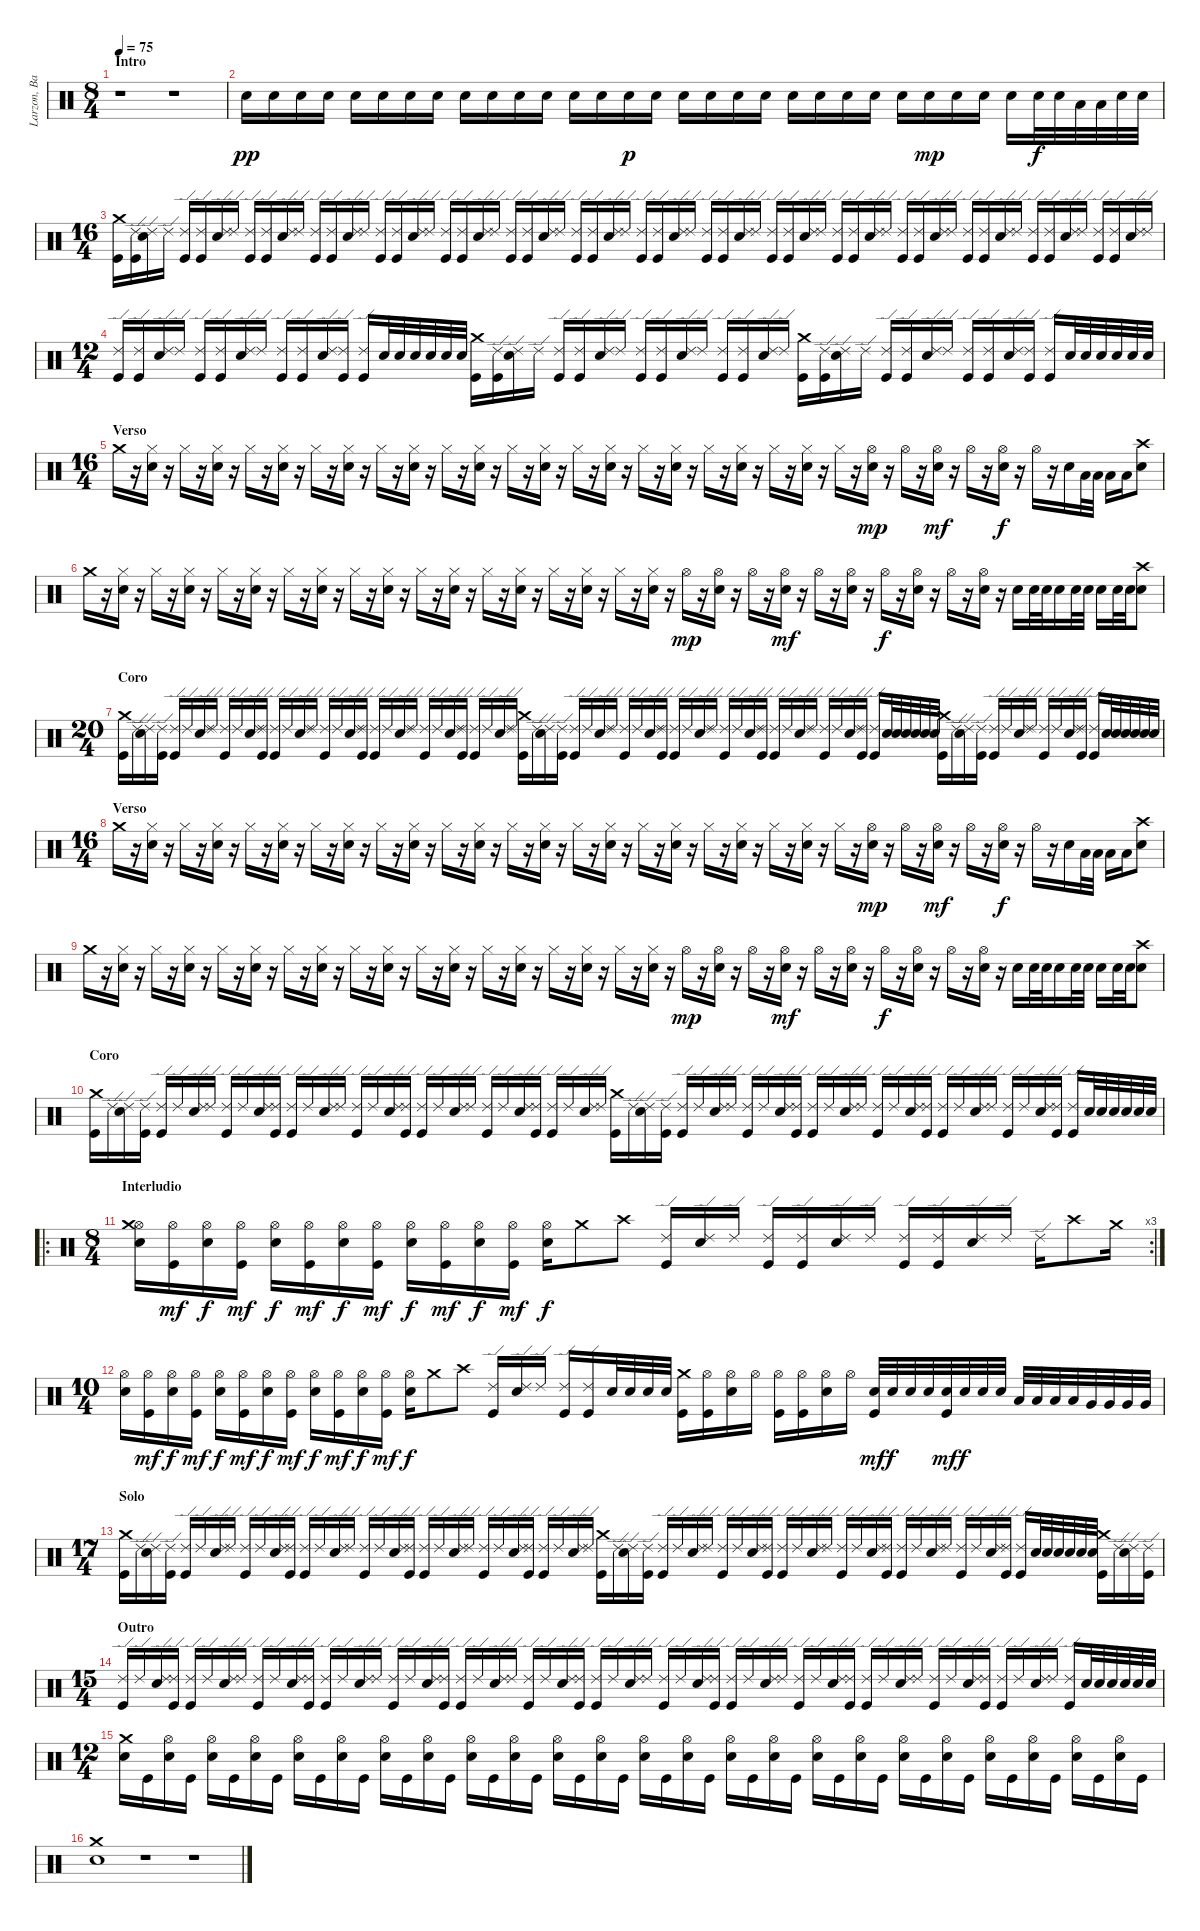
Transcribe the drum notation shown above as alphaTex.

\track ("Larzon, Batería" "Larzon, Ba") {instrument percussion}
\staff {score}
\articulation defaults
\ts (8 4)
\section ("" "Intro")
\tempo 75
\clef neutral
\ks c
r.1{dy pp} r.1 |
"Snare (hit) 2".16 "Snare (hit) 2".16 "Snare (hit) 2".16 "Snare (hit) 2".16 "Snare (hit) 2".16 "Snare (hit) 2".16 "Snare (hit) 2".16 "Snare (hit) 2".16 "Snare (hit) 2".16 "Snare (hit) 2".16 "Snare (hit) 2".16 "Snare (hit) 2".16 "Snare (hit) 2".16 "Snare (hit) 2".16 "Snare (hit) 2".16{dy p} "Snare (hit) 2".16 "Snare (hit) 2".16 "Snare (hit) 2".16 "Snare (hit) 2".16 "Snare (hit) 2".16 "Snare (hit) 2".16 "Snare (hit) 2".16 "Snare (hit) 2".16 "Snare (hit) 2".16 "Snare (hit) 2".16 "Snare (hit) 2".16{dy mp} "Snare (hit) 2".16 "Snare (hit) 2".16 "Snare (hit) 2".16 "Snare (hit) 2".32{dy f} "Snare (hit) 2".32 "Low Tom (hit)".32 "Low Tom (hit)".32 "Snare (hit) 2".32 "Snare (hit) 2".32 |
\ts (16 4)
("Crash medium (hit)" "Kick (hit)").16 ("Ride (edge) 2" "Kick (hit)").16 ("Ride (edge) 2" "Snare (hit) 2").16 "Ride (edge) 2".16 ("Ride (edge) 2" "Kick (hit)").16 ("Ride (edge) 2" "Kick (hit)").16 ("Ride (edge) 2" "Snare (hit) 2").16 "Ride (edge) 2".16 ("Ride (edge) 2" "Kick (hit)").16 ("Ride (edge) 2" "Kick (hit)").16 ("Ride (edge) 2" "Snare (hit) 2").16 "Ride (edge) 2".16 ("Ride (edge) 2" "Kick (hit)").16 ("Ride (edge) 2" "Kick (hit)").16 ("Ride (edge) 2" "Snare (hit) 2").16 "Ride (edge) 2".16 ("Ride (edge) 2" "Kick (hit)").16 ("Ride (edge) 2" "Kick (hit)").16 ("Ride (edge) 2" "Snare (hit) 2").16 "Ride (edge) 2".16 ("Ride (edge) 2" "Kick (hit)").16 ("Ride (edge) 2" "Kick (hit)").16 ("Ride (edge) 2" "Snare (hit) 2").16 "Ride (edge) 2".16 ("Ride (edge) 2" "Kick (hit)").16 ("Ride (edge) 2" "Kick (hit)").16 ("Ride (edge) 2" "Snare (hit) 2").16 "Ride (edge) 2".16 ("Ride (edge) 2" "Kick (hit)").16 ("Ride (edge) 2" "Kick (hit)").16 ("Ride (edge) 2" "Snare (hit) 2").16 "Ride (edge) 2".16 ("Ride (edge) 2" "Kick (hit)").16 ("Ride (edge) 2" "Kick (hit)").16 ("Ride (edge) 2" "Snare (hit) 2").16 "Ride (edge) 2".16 ("Ride (edge) 2" "Kick (hit)").16 ("Ride (edge) 2" "Kick (hit)").16 ("Ride (edge) 2" "Snare (hit) 2").16 "Ride (edge) 2".16 ("Ride (edge) 2" "Kick (hit)").16 ("Ride (edge) 2" "Kick (hit)").16 ("Ride (edge) 2" "Snare (hit) 2").16 "Ride (edge) 2".16 ("Ride (edge) 2" "Kick (hit)").16 ("Ride (edge) 2" "Kick (hit)").16 ("Ride (edge) 2" "Snare (hit) 2").16 "Ride (edge) 2".16 ("Ride (edge) 2" "Kick (hit)").16 ("Ride (edge) 2" "Kick (hit)").16 ("Ride (edge) 2" "Snare (hit) 2").16 "Ride (edge) 2".16 ("Ride (edge) 2" "Kick (hit)").16 ("Ride (edge) 2" "Kick (hit)").16 ("Ride (edge) 2" "Snare (hit) 2").16 "Ride (edge) 2".16 ("Ride (edge) 2" "Kick (hit)").16 ("Ride (edge) 2" "Kick (hit)").16 ("Ride (edge) 2" "Snare (hit) 2").16 "Ride (edge) 2".16 ("Ride (edge) 2" "Kick (hit)").16 ("Ride (edge) 2" "Kick (hit)").16 ("Ride (edge) 2" "Snare (hit) 2").16 "Ride (edge) 2".16 |
\ts (12 4)
("Ride (edge) 2" "Kick (hit)").16 ("Ride (edge) 2" "Kick (hit)").16 ("Ride (edge) 2" "Snare (hit) 2").16 "Ride (edge) 2".16 ("Ride (edge) 2" "Kick (hit)").16 ("Ride (edge) 2" "Kick (hit)").16 ("Ride (edge) 2" "Snare (hit) 2").16 "Ride (edge) 2".16 ("Ride (edge) 2" "Kick (hit)").16 ("Ride (edge) 2" "Kick (hit)").16 ("Ride (edge) 2" "Snare (hit) 2").16 ("Ride (edge) 2" "Kick (hit)").16 ("Ride (edge) 2" "Kick (hit)").16 "Snare (hit) 2".32 "Snare (hit) 2".32 "Snare (hit) 2".32 "Snare (hit) 2".32 "Snare (hit) 2".32 "Snare (hit) 2".32 ("Crash medium (hit)" "Kick (hit)").16 ("Ride (edge) 2" "Kick (hit)").16 ("Ride (edge) 2" "Snare (hit) 2").16 "Ride (edge) 2".16 ("Ride (edge) 2" "Kick (hit)").16 ("Ride (edge) 2" "Kick (hit)").16 ("Ride (edge) 2" "Snare (hit) 2").16 "Ride (edge) 2".16 ("Ride (edge) 2" "Kick (hit)").16 ("Ride (edge) 2" "Kick (hit)").16 ("Ride (edge) 2" "Snare (hit) 2").16 "Ride (edge) 2".16 ("Ride (edge) 2" "Kick (hit)").16 ("Ride (edge) 2" "Kick (hit)").16 ("Ride (edge) 2" "Snare (hit) 2").16 "Ride (edge) 2".16 ("Crash medium (hit)" "Kick (hit)").16 ("Ride (edge) 2" "Kick (hit)").16 ("Ride (edge) 2" "Snare (hit) 2").16 "Ride (edge) 2".16 ("Ride (edge) 2" "Kick (hit)").16 ("Ride (edge) 2" "Kick (hit)").16 ("Ride (edge) 2" "Snare (hit) 2").16 "Ride (edge) 2".16 ("Ride (edge) 2" "Kick (hit)").16 ("Ride (edge) 2" "Kick (hit)").16 ("Ride (edge) 2" "Snare (hit) 2").16 ("Ride (edge) 2" "Kick (hit)").16 ("Ride (edge) 2" "Kick (hit)").16 "Snare (hit) 2".32 "Snare (hit) 2".32 "Snare (hit) 2".32 "Snare (hit) 2".32 "Snare (hit) 2".32 "Snare (hit) 2".32 |
\ts (16 4)
\section ("" "Verso")
"Crash medium (hit)".16 r.16 ("Hi-Hat (closed)" "Snare (hit) 2").16 r.16 "Hi-Hat (closed)".16 r.16 ("Hi-Hat (closed)" "Snare (hit) 2").16 r.16 "Hi-Hat (closed)".16 r.16 ("Hi-Hat (closed)" "Snare (hit) 2").16 r.16 "Hi-Hat (closed)".16 r.16 ("Hi-Hat (closed)" "Snare (hit) 2").16 r.16 "Hi-Hat (closed)".16 r.16 ("Hi-Hat (closed)" "Snare (hit) 2").16 r.16 "Hi-Hat (closed)".16 r.16 ("Hi-Hat (closed)" "Snare (hit) 2").16 r.16 "Hi-Hat (closed)".16 r.16 ("Hi-Hat (closed)" "Snare (hit) 2").16 r.16 "Hi-Hat (closed)".16 r.16 ("Hi-Hat (closed)" "Snare (hit) 2").16 r.16 "Hi-Hat (closed)".16 r.16 ("Hi-Hat (closed)" "Snare (hit) 2").16 r.16 "Hi-Hat (closed)".16 r.16 ("Hi-Hat (closed)" "Snare (hit) 2").16 r.16 "Hi-Hat (closed)".16 r.16 ("Hi-Hat (closed)" "Snare (hit) 2").16 r.16 "Hi-Hat (closed)".16 r.16 ("Hi-Hat (open)" "Snare (hit) 2").16{dy mp} r.16 "Hi-Hat (open)".16 r.16 ("Hi-Hat (open)" "Snare (hit) 2").16{dy mf} r.16 "Hi-Hat (open)".16 r.16 ("Hi-Hat (open)" "Snare (hit) 2").16{dy f} r.16 "Hi-Hat (open)".16 r.16 "Snare (hit) 2".16 "Low Tom (hit)".32 "Low Tom (hit)".32 "Low Tom (hit)".16 "Low Tom (hit)".16 ("Crash high (hit)" "Snare (hit) 2").8 |
"Crash medium (hit)".16 r.16 ("Hi-Hat (closed)" "Snare (hit) 2").16 r.16 "Hi-Hat (closed)".16 r.16 ("Hi-Hat (closed)" "Snare (hit) 2").16 r.16 "Hi-Hat (closed)".16 r.16 ("Hi-Hat (closed)" "Snare (hit) 2").16 r.16 "Hi-Hat (closed)".16 r.16 ("Hi-Hat (closed)" "Snare (hit) 2").16 r.16 "Hi-Hat (closed)".16 r.16 ("Hi-Hat (closed)" "Snare (hit) 2").16 r.16 "Hi-Hat (closed)".16 r.16 ("Hi-Hat (closed)" "Snare (hit) 2").16 r.16 "Hi-Hat (closed)".16 r.16 ("Hi-Hat (closed)" "Snare (hit) 2").16 r.16 "Hi-Hat (closed)".16 r.16 ("Hi-Hat (closed)" "Snare (hit) 2").16 r.16 "Hi-Hat (closed)".16 r.16 ("Hi-Hat (closed)" "Snare (hit) 2").16 r.16 "Hi-Hat (open)".16{dy mp} r.16 ("Hi-Hat (open)" "Snare (hit) 2").16 r.16 "Hi-Hat (open)".16 r.16 ("Hi-Hat (open)" "Snare (hit) 2").16{dy mf} r.16 "Hi-Hat (open)".16 r.16 ("Hi-Hat (open)" "Snare (hit) 2").16 r.16 "Hi-Hat (open)".16{dy f} r.16 ("Hi-Hat (open)" "Snare (hit) 2").16 r.16 "Hi-Hat (open)".16 r.16 ("Hi-Hat (open)" "Snare (hit) 2").16 r.16 "Snare (hit) 2".16 "Snare (hit) 2".32 "Snare (hit) 2".32 "Snare (hit) 2".16 "Snare (hit) 2".32 "Snare (hit) 2".32 "Snare (hit) 2".16 "Snare (hit) 2".32 "Snare (hit) 2".32 ("Crash high (hit)" "Snare (hit) 2").8 |
\ts (20 4)
\section ("" "Coro")
("Crash medium (hit)" "Kick (hit)").16 "Ride (edge) 2".16 ("Ride (edge) 2" "Snare (hit) 2").16 ("Ride (edge) 2" "Kick (hit)").16 ("Ride (edge) 2" "Kick (hit)").16 "Ride (edge) 2".16 ("Ride (edge) 2" "Snare (hit) 2").16 "Ride (edge) 2".16 ("Ride (edge) 2" "Kick (hit)").16 "Ride (edge) 2".16 ("Ride (edge) 2" "Snare (hit) 2").16 ("Ride (edge) 2" "Kick (hit)").16 ("Ride (edge) 2" "Kick (hit)").16 "Ride (edge) 2".16 ("Ride (edge) 2" "Snare (hit) 2").16 "Ride (edge) 2".16 ("Ride (edge) 2" "Kick (hit)").16 "Ride (edge) 2".16 ("Ride (edge) 2" "Snare (hit) 2").16 ("Ride (edge) 2" "Kick (hit)").16 ("Ride (edge) 2" "Kick (hit)").16 "Ride (edge) 2".16 ("Ride (edge) 2" "Snare (hit) 2").16 "Ride (edge) 2".16 ("Ride (edge) 2" "Kick (hit)").16 "Ride (edge) 2".16 ("Ride (edge) 2" "Snare (hit) 2").16 ("Ride (edge) 2" "Kick (hit)").16 ("Ride (edge) 2" "Kick (hit)").16 "Ride (edge) 2".16 ("Ride (edge) 2" "Snare (hit) 2").16 "Ride (edge) 2".16 ("Crash medium (hit)" "Kick (hit)").16 "Ride (edge) 2".16 ("Ride (edge) 2" "Snare (hit) 2").16 ("Ride (edge) 2" "Kick (hit)").16 ("Ride (edge) 2" "Kick (hit)").16 "Ride (edge) 2".16 ("Ride (edge) 2" "Snare (hit) 2").16 "Ride (edge) 2".16 ("Ride (edge) 2" "Kick (hit)").16 "Ride (edge) 2".16 ("Ride (edge) 2" "Snare (hit) 2").16 ("Ride (edge) 2" "Kick (hit)").16 ("Ride (edge) 2" "Kick (hit)").16 "Ride (edge) 2".16 ("Ride (edge) 2" "Snare (hit) 2").16 "Ride (edge) 2".16 ("Ride (edge) 2" "Kick (hit)").16 "Ride (edge) 2".16 ("Ride (edge) 2" "Snare (hit) 2").16 ("Ride (edge) 2" "Kick (hit)").16 ("Ride (edge) 2" "Kick (hit)").16 "Ride (edge) 2".16 ("Ride (edge) 2" "Snare (hit) 2").16 "Ride (edge) 2".16 ("Ride (edge) 2" "Kick (hit)").16 "Ride (edge) 2".16 ("Ride (edge) 2" "Snare (hit) 2").16 ("Ride (edge) 2" "Kick (hit)").16 ("Ride (edge) 2" "Kick (hit)").16 "Snare (hit) 2".32 "Snare (hit) 2".32 "Snare (hit) 2".32 "Snare (hit) 2".32 "Snare (hit) 2".32 "Snare (hit) 2".32 ("Crash medium (hit)" "Kick (hit)").16 "Ride (edge) 2".16 ("Ride (edge) 2" "Snare (hit) 2").16 ("Ride (edge) 2" "Kick (hit)").16 ("Ride (edge) 2" "Kick (hit)").16 "Ride (edge) 2".16 ("Ride (edge) 2" "Snare (hit) 2").16 "Ride (edge) 2".16 ("Ride (edge) 2" "Kick (hit)").16 "Ride (edge) 2".16 ("Ride (edge) 2" "Snare (hit) 2").16 ("Ride (edge) 2" "Kick (hit)").16 ("Ride (edge) 2" "Kick (hit)").16 "Snare (hit) 2".32 "Snare (hit) 2".32 "Snare (hit) 2".32 "Snare (hit) 2".32 "Snare (hit) 2".32 "Snare (hit) 2".32 |
\ts (16 4)
\section ("" "Verso")
"Crash medium (hit)".16 r.16 ("Hi-Hat (closed)" "Snare (hit) 2").16 r.16 "Hi-Hat (closed)".16 r.16 ("Hi-Hat (closed)" "Snare (hit) 2").16 r.16 "Hi-Hat (closed)".16 r.16 ("Hi-Hat (closed)" "Snare (hit) 2").16 r.16 "Hi-Hat (closed)".16 r.16 ("Hi-Hat (closed)" "Snare (hit) 2").16 r.16 "Hi-Hat (closed)".16 r.16 ("Hi-Hat (closed)" "Snare (hit) 2").16 r.16 "Hi-Hat (closed)".16 r.16 ("Hi-Hat (closed)" "Snare (hit) 2").16 r.16 "Hi-Hat (closed)".16 r.16 ("Hi-Hat (closed)" "Snare (hit) 2").16 r.16 "Hi-Hat (closed)".16 r.16 ("Hi-Hat (closed)" "Snare (hit) 2").16 r.16 "Hi-Hat (closed)".16 r.16 ("Hi-Hat (closed)" "Snare (hit) 2").16 r.16 "Hi-Hat (closed)".16 r.16 ("Hi-Hat (closed)" "Snare (hit) 2").16 r.16 "Hi-Hat (closed)".16 r.16 ("Hi-Hat (closed)" "Snare (hit) 2").16 r.16 "Hi-Hat (closed)".16 r.16 ("Hi-Hat (open)" "Snare (hit) 2").16{dy mp} r.16 "Hi-Hat (open)".16 r.16 ("Hi-Hat (open)" "Snare (hit) 2").16{dy mf} r.16 "Hi-Hat (open)".16 r.16 ("Hi-Hat (open)" "Snare (hit) 2").16{dy f} r.16 "Hi-Hat (open)".16 r.16 "Snare (hit) 2".16 "Low Tom (hit)".32 "Low Tom (hit)".32 "Low Tom (hit)".16 "Low Tom (hit)".16 ("Crash high (hit)" "Snare (hit) 2").8 |
"Crash medium (hit)".16 r.16 ("Hi-Hat (closed)" "Snare (hit) 2").16 r.16 "Hi-Hat (closed)".16 r.16 ("Hi-Hat (closed)" "Snare (hit) 2").16 r.16 "Hi-Hat (closed)".16 r.16 ("Hi-Hat (closed)" "Snare (hit) 2").16 r.16 "Hi-Hat (closed)".16 r.16 ("Hi-Hat (closed)" "Snare (hit) 2").16 r.16 "Hi-Hat (closed)".16 r.16 ("Hi-Hat (closed)" "Snare (hit) 2").16 r.16 "Hi-Hat (closed)".16 r.16 ("Hi-Hat (closed)" "Snare (hit) 2").16 r.16 "Hi-Hat (closed)".16 r.16 ("Hi-Hat (closed)" "Snare (hit) 2").16 r.16 "Hi-Hat (closed)".16 r.16 ("Hi-Hat (closed)" "Snare (hit) 2").16 r.16 "Hi-Hat (closed)".16 r.16 ("Hi-Hat (closed)" "Snare (hit) 2").16 r.16 "Hi-Hat (open)".16{dy mp} r.16 ("Hi-Hat (open)" "Snare (hit) 2").16 r.16 "Hi-Hat (open)".16 r.16 ("Hi-Hat (open)" "Snare (hit) 2").16{dy mf} r.16 "Hi-Hat (open)".16 r.16 ("Hi-Hat (open)" "Snare (hit) 2").16 r.16 "Hi-Hat (open)".16{dy f} r.16 ("Hi-Hat (open)" "Snare (hit) 2").16 r.16 "Hi-Hat (open)".16 r.16 ("Hi-Hat (open)" "Snare (hit) 2").16 r.16 "Snare (hit) 2".16 "Snare (hit) 2".32 "Snare (hit) 2".32 "Snare (hit) 2".16 "Snare (hit) 2".32 "Snare (hit) 2".32 "Snare (hit) 2".16 "Snare (hit) 2".32 "Snare (hit) 2".32 ("Crash high (hit)" "Snare (hit) 2").8 |
\section ("" "Coro")
("Crash medium (hit)" "Kick (hit)").16 "Ride (edge) 2".16 ("Ride (edge) 2" "Snare (hit) 2").16 ("Ride (edge) 2" "Kick (hit)").16 ("Ride (edge) 2" "Kick (hit)").16 "Ride (edge) 2".16 ("Ride (edge) 2" "Snare (hit) 2").16 "Ride (edge) 2".16 ("Ride (edge) 2" "Kick (hit)").16 "Ride (edge) 2".16 ("Ride (edge) 2" "Snare (hit) 2").16 ("Ride (edge) 2" "Kick (hit)").16 ("Ride (edge) 2" "Kick (hit)").16 "Ride (edge) 2".16 ("Ride (edge) 2" "Snare (hit) 2").16 "Ride (edge) 2".16 ("Ride (edge) 2" "Kick (hit)").16 "Ride (edge) 2".16 ("Ride (edge) 2" "Snare (hit) 2").16 ("Ride (edge) 2" "Kick (hit)").16 ("Ride (edge) 2" "Kick (hit)").16 "Ride (edge) 2".16 ("Ride (edge) 2" "Snare (hit) 2").16 "Ride (edge) 2".16 ("Ride (edge) 2" "Kick (hit)").16 "Ride (edge) 2".16 ("Ride (edge) 2" "Snare (hit) 2").16 ("Ride (edge) 2" "Kick (hit)").16 ("Ride (edge) 2" "Kick (hit)").16 "Ride (edge) 2".16 ("Ride (edge) 2" "Snare (hit) 2").16 "Ride (edge) 2".16 ("Crash medium (hit)" "Kick (hit)").16 "Ride (edge) 2".16 ("Ride (edge) 2" "Snare (hit) 2").16 ("Ride (edge) 2" "Kick (hit)").16 ("Ride (edge) 2" "Kick (hit)").16 "Ride (edge) 2".16 ("Ride (edge) 2" "Snare (hit) 2").16 "Ride (edge) 2".16 ("Ride (edge) 2" "Kick (hit)").16 "Ride (edge) 2".16 ("Ride (edge) 2" "Snare (hit) 2").16 ("Ride (edge) 2" "Kick (hit)").16 ("Ride (edge) 2" "Kick (hit)").16 "Ride (edge) 2".16 ("Ride (edge) 2" "Snare (hit) 2").16 "Ride (edge) 2".16 ("Ride (edge) 2" "Kick (hit)").16 "Ride (edge) 2".16 ("Ride (edge) 2" "Snare (hit) 2").16 ("Ride (edge) 2" "Kick (hit)").16 ("Ride (edge) 2" "Kick (hit)").16 "Ride (edge) 2".16 ("Ride (edge) 2" "Snare (hit) 2").16 "Ride (edge) 2".16 ("Ride (edge) 2" "Kick (hit)").16 "Ride (edge) 2".16 ("Ride (edge) 2" "Snare (hit) 2").16 ("Ride (edge) 2" "Kick (hit)").16 ("Ride (edge) 2" "Kick (hit)").16 "Snare (hit) 2".32 "Snare (hit) 2".32 "Snare (hit) 2".32 "Snare (hit) 2".32 "Snare (hit) 2".32 "Snare (hit) 2".32 |
\ro
\rc 3
\ts (8 4)
\section ("" "Interludio")
("Hi-Hat (open)" "Snare (hit) 2" "Crash medium (hit)").16 ("Hi-Hat (open)" "Kick (hit)").16{dy mf} ("Hi-Hat (open)" "Snare (hit) 2").16{dy f} ("Hi-Hat (open)" "Kick (hit)").16{dy mf} ("Hi-Hat (open)" "Snare (hit) 2").16{dy f} ("Hi-Hat (open)" "Kick (hit)").16{dy mf} ("Hi-Hat (open)" "Snare (hit) 2").16{dy f} ("Hi-Hat (open)" "Kick (hit)").16{dy mf} ("Hi-Hat (open)" "Snare (hit) 2").16{dy f} ("Hi-Hat (open)" "Kick (hit)").16{dy mf} ("Hi-Hat (open)" "Snare (hit) 2").16{dy f} ("Hi-Hat (open)" "Kick (hit)").16{dy mf} ("Hi-Hat (open)" "Snare (hit) 2").16{dy f} "Crash medium (hit)".8 "Crash high (hit)".8 ("Ride (edge) 2" "Kick (hit)").16 ("Ride (edge) 2" "Snare (hit) 2").16 "Ride (edge) 2".16 ("Ride (edge) 2" "Kick (hit)").16 ("Ride (edge) 2" "Kick (hit)").16 ("Ride (edge) 2" "Snare (hit) 2").16 "Ride (edge) 2".16 ("Ride (edge) 2" "Kick (hit)").16 ("Ride (edge) 2" "Kick (hit)").16 ("Ride (edge) 2" "Snare (hit) 2").16 "Ride (edge) 2".16 "Ride (edge) 2".16 "Crash high (hit)".8 "Crash medium (hit)".16 |
\ts (10 4)
("Hi-Hat (open)" "Snare (hit) 2").16 ("Hi-Hat (open)" "Kick (hit)").16{dy mf} ("Hi-Hat (open)" "Snare (hit) 2").16{dy f} ("Hi-Hat (open)" "Kick (hit)").16{dy mf} ("Hi-Hat (open)" "Snare (hit) 2").16{dy f} ("Hi-Hat (open)" "Kick (hit)").16{dy mf} ("Hi-Hat (open)" "Snare (hit) 2").16{dy f} ("Hi-Hat (open)" "Kick (hit)").16{dy mf} ("Hi-Hat (open)" "Snare (hit) 2").16{dy f} ("Hi-Hat (open)" "Kick (hit)").16{dy mf} ("Hi-Hat (open)" "Snare (hit) 2").16{dy f} ("Hi-Hat (open)" "Kick (hit)").16{dy mf} ("Hi-Hat (open)" "Snare (hit) 2").16{dy f} "Crash medium (hit)".8 "Crash high (hit)".8 ("Ride (edge) 2" "Kick (hit)").16 ("Ride (edge) 2" "Snare (hit) 2").16 "Ride (edge) 2".16 ("Ride (edge) 2" "Kick (hit)").16 ("Ride (edge) 2" "Kick (hit)").16 "Snare (hit) 2".32 "Snare (hit) 2".32 "Snare (hit) 2".32 "Snare (hit) 2".32 ("Crash medium (hit)" "Kick (hit)").16 ("Hi-Hat (open)" "Kick (hit)").16 ("Hi-Hat (open)" "Snare (hit) 2").16 "Hi-Hat (open)".16 ("Hi-Hat (open)" "Kick (hit)").16 ("Hi-Hat (open)" "Kick (hit)").16 ("Hi-Hat (open)" "Snare (hit) 2").16 "Hi-Hat (open)".16 ("Snare (hit) 2" "Kick (hit)").32{dy mf} "Snare (hit) 2".32{dy f} "Snare (hit) 2".32 "Snare (hit) 2".32 ("Snare (hit) 2" "Kick (hit)").32{dy mf} "Snare (hit) 2".32{dy f} "Snare (hit) 2".32 "Snare (hit) 2".32 "Low Tom (hit)".32 "Low Tom (hit)".32 "Low Tom (hit)".32 "Low Tom (hit)".32 "Very Low Tom (hit)".32 "Very Low Tom (hit)".32 "Very Low Tom (hit)".32 "Very Low Tom (hit)".32 |
\ts (17 4)
\section ("" "Solo")
("Crash medium (hit)" "Kick (hit)").16 "Ride (edge) 2".16 ("Ride (edge) 2" "Snare (hit) 2").16 ("Ride (edge) 2" "Kick (hit)").16 ("Ride (edge) 2" "Kick (hit)").16 "Ride (edge) 2".16 ("Ride (edge) 2" "Snare (hit) 2").16 "Ride (edge) 2".16 ("Ride (edge) 2" "Kick (hit)").16 "Ride (edge) 2".16 ("Ride (edge) 2" "Snare (hit) 2").16 ("Ride (edge) 2" "Kick (hit)").16 ("Ride (edge) 2" "Kick (hit)").16 "Ride (edge) 2".16 ("Ride (edge) 2" "Snare (hit) 2").16 "Ride (edge) 2".16 ("Ride (edge) 2" "Kick (hit)").16 "Ride (edge) 2".16 ("Ride (edge) 2" "Snare (hit) 2").16 ("Ride (edge) 2" "Kick (hit)").16 ("Ride (edge) 2" "Kick (hit)").16 "Ride (edge) 2".16 ("Ride (edge) 2" "Snare (hit) 2").16 "Ride (edge) 2".16 ("Ride (edge) 2" "Kick (hit)").16 "Ride (edge) 2".16 ("Ride (edge) 2" "Snare (hit) 2").16 ("Ride (edge) 2" "Kick (hit)").16 ("Ride (edge) 2" "Kick (hit)").16 "Ride (edge) 2".16 ("Ride (edge) 2" "Snare (hit) 2").16 "Ride (edge) 2".16 ("Crash medium (hit)" "Kick (hit)").16 "Ride (edge) 2".16 ("Ride (edge) 2" "Snare (hit) 2").16 ("Ride (edge) 2" "Kick (hit)").16 ("Ride (edge) 2" "Kick (hit)").16 "Ride (edge) 2".16 ("Ride (edge) 2" "Snare (hit) 2").16 "Ride (edge) 2".16 ("Ride (edge) 2" "Kick (hit)").16 "Ride (edge) 2".16 ("Ride (edge) 2" "Snare (hit) 2").16 ("Ride (edge) 2" "Kick (hit)").16 ("Ride (edge) 2" "Kick (hit)").16 "Ride (edge) 2".16 ("Ride (edge) 2" "Snare (hit) 2").16 "Ride (edge) 2".16 ("Ride (edge) 2" "Kick (hit)").16 "Ride (edge) 2".16 ("Ride (edge) 2" "Snare (hit) 2").16 ("Ride (edge) 2" "Kick (hit)").16 ("Ride (edge) 2" "Kick (hit)").16 "Ride (edge) 2".16 ("Ride (edge) 2" "Snare (hit) 2").16 "Ride (edge) 2".16 ("Ride (edge) 2" "Kick (hit)").16 "Ride (edge) 2".16 ("Ride (edge) 2" "Snare (hit) 2").16 ("Ride (edge) 2" "Kick (hit)").16 ("Ride (edge) 2" "Kick (hit)").16 "Snare (hit) 2".32 "Snare (hit) 2".32 "Snare (hit) 2".32 "Snare (hit) 2".32 "Snare (hit) 2".32 "Snare (hit) 2".32 ("Crash medium (hit)" "Kick (hit)").16 "Ride (edge) 2".16 ("Ride (edge) 2" "Snare (hit) 2").16 ("Ride (edge) 2" "Kick (hit)").16 |
\ts (15 4)
\section ("" "Outro")
("Ride (edge) 2" "Kick (hit)").16 "Ride (edge) 2".16 ("Ride (edge) 2" "Snare (hit) 2").16 ("Ride (edge) 2" "Kick (hit)").16 ("Ride (edge) 2" "Kick (hit)").16 "Ride (edge) 2".16 ("Ride (edge) 2" "Snare (hit) 2").16 "Ride (edge) 2".16 ("Ride (edge) 2" "Kick (hit)").16 "Ride (edge) 2".16 ("Ride (edge) 2" "Snare (hit) 2").16 ("Ride (edge) 2" "Kick (hit)").16 ("Ride (edge) 2" "Kick (hit)").16 "Ride (edge) 2".16 ("Ride (edge) 2" "Snare (hit) 2").16 "Ride (edge) 2".16 ("Ride (edge) 2" "Kick (hit)").16 "Ride (edge) 2".16 ("Ride (edge) 2" "Snare (hit) 2").16 ("Ride (edge) 2" "Kick (hit)").16 ("Ride (edge) 2" "Kick (hit)").16 "Ride (edge) 2".16 ("Ride (edge) 2" "Snare (hit) 2").16 "Ride (edge) 2".16 ("Ride (edge) 2" "Kick (hit)").16 "Ride (edge) 2".16 ("Ride (edge) 2" "Snare (hit) 2").16 ("Ride (edge) 2" "Kick (hit)").16 ("Ride (edge) 2" "Kick (hit)").16 "Ride (edge) 2".16 ("Ride (edge) 2" "Snare (hit) 2").16 "Ride (edge) 2".16 ("Ride (edge) 2" "Kick (hit)").16 "Ride (edge) 2".16 ("Ride (edge) 2" "Snare (hit) 2").16 ("Ride (edge) 2" "Kick (hit)").16 ("Ride (edge) 2" "Kick (hit)").16 "Ride (edge) 2".16 ("Ride (edge) 2" "Snare (hit) 2").16 "Ride (edge) 2".16 ("Ride (edge) 2" "Kick (hit)").16 "Ride (edge) 2".16 ("Ride (edge) 2" "Snare (hit) 2").16 ("Ride (edge) 2" "Kick (hit)").16 ("Ride (edge) 2" "Kick (hit)").16 "Ride (edge) 2".16 ("Ride (edge) 2" "Snare (hit) 2").16 "Ride (edge) 2".16 ("Ride (edge) 2" "Kick (hit)").16 "Ride (edge) 2".16 ("Ride (edge) 2" "Snare (hit) 2").16 ("Ride (edge) 2" "Kick (hit)").16 ("Ride (edge) 2" "Kick (hit)").16 "Ride (edge) 2".16 ("Ride (edge) 2" "Snare (hit) 2").16 "Ride (edge) 2".16 ("Ride (edge) 2" "Kick (hit)").16 "Snare (hit) 2".32 "Snare (hit) 2".32 "Snare (hit) 2".32 "Snare (hit) 2".32 "Snare (hit) 2".32 "Snare (hit) 2".32 |
\ts (12 4)
("Snare (hit) 2" "Crash medium (hit)").16 "Kick (hit)".16 ("Hi-Hat (open)" "Snare (hit) 2").16 "Kick (hit)".16 ("Hi-Hat (open)" "Snare (hit) 2").16 "Kick (hit)".16 ("Hi-Hat (open)" "Snare (hit) 2").16 "Kick (hit)".16 ("Hi-Hat (open)" "Snare (hit) 2").16 "Kick (hit)".16 ("Hi-Hat (open)" "Snare (hit) 2").16 "Kick (hit)".16 ("Hi-Hat (open)" "Snare (hit) 2").16 "Kick (hit)".16 ("Hi-Hat (open)" "Snare (hit) 2").16 "Kick (hit)".16 ("Hi-Hat (open)" "Snare (hit) 2").16 "Kick (hit)".16 ("Hi-Hat (open)" "Snare (hit) 2").16 "Kick (hit)".16 ("Hi-Hat (open)" "Snare (hit) 2").16 "Kick (hit)".16 ("Hi-Hat (open)" "Snare (hit) 2").16 "Kick (hit)".16 ("Hi-Hat (open)" "Snare (hit) 2").16 "Kick (hit)".16 ("Hi-Hat (open)" "Snare (hit) 2").16 "Kick (hit)".16 ("Hi-Hat (open)" "Snare (hit) 2").16 "Kick (hit)".16 ("Hi-Hat (open)" "Snare (hit) 2").16 "Kick (hit)".16 ("Hi-Hat (open)" "Snare (hit) 2").16 "Kick (hit)".16 ("Hi-Hat (open)" "Snare (hit) 2").16 "Kick (hit)".16 ("Hi-Hat (open)" "Snare (hit) 2").16 "Kick (hit)".16 ("Hi-Hat (open)" "Snare (hit) 2").16 "Kick (hit)".16 ("Hi-Hat (open)" "Snare (hit) 2").16 "Kick (hit)".16 ("Hi-Hat (open)" "Snare (hit) 2").16 "Kick (hit)".16 ("Hi-Hat (open)" "Snare (hit) 2").16 "Kick (hit)".16 ("Hi-Hat (open)" "Snare (hit) 2").16 "Kick (hit)".16 |
("Crash medium (hit)" "Snare (hit) 2").1 r.1 r.1
